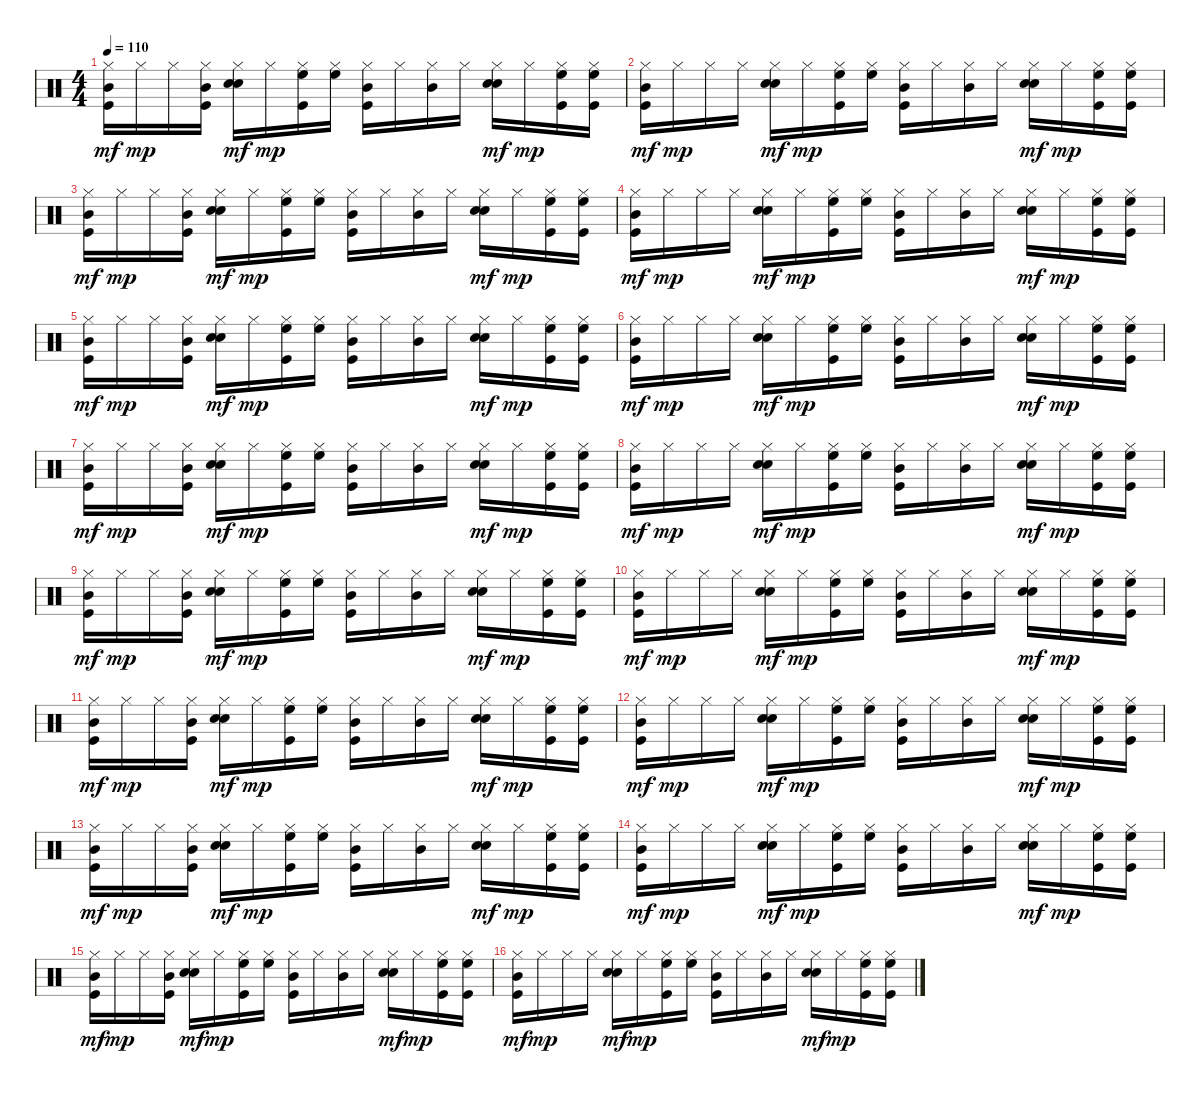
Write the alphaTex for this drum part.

\track "" {instrument percussion}
\staff {score}
\articulation defaults
\ts (4 4)
\tempo 110
\clef neutral
\ks c
("Kick (hit)" "Hi-Hat (closed)" "Mid Tom (hit)").16{dy mf} "Hi-Hat (closed)".16{dy mp} "Hi-Hat (closed)".16 ("Kick (hit)" "Hi-Hat (closed)" "Mid Tom (hit)").16 ("Electric Snare (hit)" "Hi-Hat (closed)" "Hand Clap (hit)").16{dy mf} "Hi-Hat (closed)".16{dy mp} ("Kick (hit)" "Hi-Hat (closed)" "High Floor Tom (hit)").16 ("Hi-Hat (closed)" "High Floor Tom (hit)").16 ("Kick (hit)" "Hi-Hat (closed)" "Mid Tom (hit)").16 "Hi-Hat (closed)".16 ("Hi-Hat (closed)" "Mid Tom (hit)").16 "Hi-Hat (closed)".16 ("Electric Snare (hit)" "Hi-Hat (closed)" "Hand Clap (hit)").16{dy mf} "Hi-Hat (closed)".16{dy mp} ("Kick (hit)" "Hi-Hat (closed)" "High Floor Tom (hit)").16 ("Kick (hit)" "Hi-Hat (closed)" "High Floor Tom (hit)").16 |
("Kick (hit)" "Hi-Hat (closed)" "Mid Tom (hit)").16{dy mf} "Hi-Hat (closed)".16{dy mp} "Hi-Hat (closed)".16 "Hi-Hat (closed)".16 ("Electric Snare (hit)" "Hi-Hat (closed)" "Hand Clap (hit)").16{dy mf} "Hi-Hat (closed)".16{dy mp} ("Kick (hit)" "Hi-Hat (closed)" "High Floor Tom (hit)").16 ("Hi-Hat (closed)" "High Floor Tom (hit)").16 ("Kick (hit)" "Hi-Hat (closed)" "Mid Tom (hit)").16 "Hi-Hat (closed)".16 ("Hi-Hat (closed)" "Mid Tom (hit)").16 "Hi-Hat (closed)".16 ("Electric Snare (hit)" "Hi-Hat (closed)" "Hand Clap (hit)").16{dy mf} "Hi-Hat (closed)".16{dy mp} ("Kick (hit)" "Hi-Hat (closed)" "High Floor Tom (hit)").16 ("Kick (hit)" "Hi-Hat (closed)" "High Floor Tom (hit)").16 |
("Kick (hit)" "Hi-Hat (closed)" "Mid Tom (hit)").16{dy mf} "Hi-Hat (closed)".16{dy mp} "Hi-Hat (closed)".16 ("Kick (hit)" "Hi-Hat (closed)" "Mid Tom (hit)").16 ("Electric Snare (hit)" "Hi-Hat (closed)" "Hand Clap (hit)").16{dy mf} "Hi-Hat (closed)".16{dy mp} ("Kick (hit)" "Hi-Hat (closed)" "High Floor Tom (hit)").16 ("Hi-Hat (closed)" "High Floor Tom (hit)").16 ("Kick (hit)" "Hi-Hat (closed)" "Mid Tom (hit)").16 "Hi-Hat (closed)".16 ("Hi-Hat (closed)" "Mid Tom (hit)").16 "Hi-Hat (closed)".16 ("Electric Snare (hit)" "Hi-Hat (closed)" "Hand Clap (hit)").16{dy mf} "Hi-Hat (closed)".16{dy mp} ("Kick (hit)" "Hi-Hat (closed)" "High Floor Tom (hit)").16 ("Kick (hit)" "Hi-Hat (closed)" "High Floor Tom (hit)").16 |
("Kick (hit)" "Hi-Hat (closed)" "Mid Tom (hit)").16{dy mf} "Hi-Hat (closed)".16{dy mp} "Hi-Hat (closed)".16 "Hi-Hat (closed)".16 ("Electric Snare (hit)" "Hi-Hat (closed)" "Hand Clap (hit)").16{dy mf} "Hi-Hat (closed)".16{dy mp} ("Kick (hit)" "Hi-Hat (closed)" "High Floor Tom (hit)").16 ("Hi-Hat (closed)" "High Floor Tom (hit)").16 ("Kick (hit)" "Hi-Hat (closed)" "Mid Tom (hit)").16 "Hi-Hat (closed)".16 ("Hi-Hat (closed)" "Mid Tom (hit)").16 "Hi-Hat (closed)".16 ("Electric Snare (hit)" "Hi-Hat (closed)" "Hand Clap (hit)").16{dy mf} "Hi-Hat (closed)".16{dy mp} ("Kick (hit)" "Hi-Hat (closed)" "High Floor Tom (hit)").16 ("Kick (hit)" "Hi-Hat (closed)" "High Floor Tom (hit)").16 |
("Kick (hit)" "Hi-Hat (closed)" "Mid Tom (hit)").16{dy mf} "Hi-Hat (closed)".16{dy mp} "Hi-Hat (closed)".16 ("Kick (hit)" "Hi-Hat (closed)" "Mid Tom (hit)").16 ("Electric Snare (hit)" "Hi-Hat (closed)" "Hand Clap (hit)").16{dy mf} "Hi-Hat (closed)".16{dy mp} ("Kick (hit)" "Hi-Hat (closed)" "High Floor Tom (hit)").16 ("Hi-Hat (closed)" "High Floor Tom (hit)").16 ("Kick (hit)" "Hi-Hat (closed)" "Mid Tom (hit)").16 "Hi-Hat (closed)".16 ("Hi-Hat (closed)" "Mid Tom (hit)").16 "Hi-Hat (closed)".16 ("Electric Snare (hit)" "Hi-Hat (closed)" "Hand Clap (hit)").16{dy mf} "Hi-Hat (closed)".16{dy mp} ("Kick (hit)" "Hi-Hat (closed)" "High Floor Tom (hit)").16 ("Kick (hit)" "Hi-Hat (closed)" "High Floor Tom (hit)").16 |
("Kick (hit)" "Hi-Hat (closed)" "Mid Tom (hit)").16{dy mf} "Hi-Hat (closed)".16{dy mp} "Hi-Hat (closed)".16 "Hi-Hat (closed)".16 ("Electric Snare (hit)" "Hi-Hat (closed)" "Hand Clap (hit)").16{dy mf} "Hi-Hat (closed)".16{dy mp} ("Kick (hit)" "Hi-Hat (closed)" "High Floor Tom (hit)").16 ("Hi-Hat (closed)" "High Floor Tom (hit)").16 ("Kick (hit)" "Hi-Hat (closed)" "Mid Tom (hit)").16 "Hi-Hat (closed)".16 ("Hi-Hat (closed)" "Mid Tom (hit)").16 "Hi-Hat (closed)".16 ("Electric Snare (hit)" "Hi-Hat (closed)" "Hand Clap (hit)").16{dy mf} "Hi-Hat (closed)".16{dy mp} ("Kick (hit)" "Hi-Hat (closed)" "High Floor Tom (hit)").16 ("Kick (hit)" "Hi-Hat (closed)" "High Floor Tom (hit)").16 |
("Kick (hit)" "Hi-Hat (closed)" "Mid Tom (hit)").16{dy mf} "Hi-Hat (closed)".16{dy mp} "Hi-Hat (closed)".16 ("Kick (hit)" "Hi-Hat (closed)" "Mid Tom (hit)").16 ("Electric Snare (hit)" "Hi-Hat (closed)" "Hand Clap (hit)").16{dy mf} "Hi-Hat (closed)".16{dy mp} ("Kick (hit)" "Hi-Hat (closed)" "High Floor Tom (hit)").16 ("Hi-Hat (closed)" "High Floor Tom (hit)").16 ("Kick (hit)" "Hi-Hat (closed)" "Mid Tom (hit)").16 "Hi-Hat (closed)".16 ("Hi-Hat (closed)" "Mid Tom (hit)").16 "Hi-Hat (closed)".16 ("Electric Snare (hit)" "Hi-Hat (closed)" "Hand Clap (hit)").16{dy mf} "Hi-Hat (closed)".16{dy mp} ("Kick (hit)" "Hi-Hat (closed)" "High Floor Tom (hit)").16 ("Kick (hit)" "Hi-Hat (closed)" "High Floor Tom (hit)").16 |
("Kick (hit)" "Hi-Hat (closed)" "Mid Tom (hit)").16{dy mf} "Hi-Hat (closed)".16{dy mp} "Hi-Hat (closed)".16 "Hi-Hat (closed)".16 ("Electric Snare (hit)" "Hi-Hat (closed)" "Hand Clap (hit)").16{dy mf} "Hi-Hat (closed)".16{dy mp} ("Kick (hit)" "Hi-Hat (closed)" "High Floor Tom (hit)").16 ("Hi-Hat (closed)" "High Floor Tom (hit)").16 ("Kick (hit)" "Hi-Hat (closed)" "Mid Tom (hit)").16 "Hi-Hat (closed)".16 ("Hi-Hat (closed)" "Mid Tom (hit)").16 "Hi-Hat (closed)".16 ("Electric Snare (hit)" "Hi-Hat (closed)" "Hand Clap (hit)").16{dy mf} "Hi-Hat (closed)".16{dy mp} ("Kick (hit)" "Hi-Hat (closed)" "High Floor Tom (hit)").16 ("Kick (hit)" "Hi-Hat (closed)" "High Floor Tom (hit)").16 |
("Kick (hit)" "Hi-Hat (closed)" "Mid Tom (hit)").16{dy mf} "Hi-Hat (closed)".16{dy mp} "Hi-Hat (closed)".16 ("Kick (hit)" "Hi-Hat (closed)" "Mid Tom (hit)").16 ("Electric Snare (hit)" "Hi-Hat (closed)" "Hand Clap (hit)").16{dy mf} "Hi-Hat (closed)".16{dy mp} ("Kick (hit)" "Hi-Hat (closed)" "High Floor Tom (hit)").16 ("Hi-Hat (closed)" "High Floor Tom (hit)").16 ("Kick (hit)" "Hi-Hat (closed)" "Mid Tom (hit)").16 "Hi-Hat (closed)".16 ("Hi-Hat (closed)" "Mid Tom (hit)").16 "Hi-Hat (closed)".16 ("Electric Snare (hit)" "Hi-Hat (closed)" "Hand Clap (hit)").16{dy mf} "Hi-Hat (closed)".16{dy mp} ("Kick (hit)" "Hi-Hat (closed)" "High Floor Tom (hit)").16 ("Kick (hit)" "Hi-Hat (closed)" "High Floor Tom (hit)").16 |
("Kick (hit)" "Hi-Hat (closed)" "Mid Tom (hit)").16{dy mf} "Hi-Hat (closed)".16{dy mp} "Hi-Hat (closed)".16 "Hi-Hat (closed)".16 ("Electric Snare (hit)" "Hi-Hat (closed)" "Hand Clap (hit)").16{dy mf} "Hi-Hat (closed)".16{dy mp} ("Kick (hit)" "Hi-Hat (closed)" "High Floor Tom (hit)").16 ("Hi-Hat (closed)" "High Floor Tom (hit)").16 ("Kick (hit)" "Hi-Hat (closed)" "Mid Tom (hit)").16 "Hi-Hat (closed)".16 ("Hi-Hat (closed)" "Mid Tom (hit)").16 "Hi-Hat (closed)".16 ("Electric Snare (hit)" "Hi-Hat (closed)" "Hand Clap (hit)").16{dy mf} "Hi-Hat (closed)".16{dy mp} ("Kick (hit)" "Hi-Hat (closed)" "High Floor Tom (hit)").16 ("Kick (hit)" "Hi-Hat (closed)" "High Floor Tom (hit)").16 |
("Kick (hit)" "Hi-Hat (closed)" "Mid Tom (hit)").16{dy mf} "Hi-Hat (closed)".16{dy mp} "Hi-Hat (closed)".16 ("Kick (hit)" "Hi-Hat (closed)" "Mid Tom (hit)").16 ("Electric Snare (hit)" "Hi-Hat (closed)" "Hand Clap (hit)").16{dy mf} "Hi-Hat (closed)".16{dy mp} ("Kick (hit)" "Hi-Hat (closed)" "High Floor Tom (hit)").16 ("Hi-Hat (closed)" "High Floor Tom (hit)").16 ("Kick (hit)" "Hi-Hat (closed)" "Mid Tom (hit)").16 "Hi-Hat (closed)".16 ("Hi-Hat (closed)" "Mid Tom (hit)").16 "Hi-Hat (closed)".16 ("Electric Snare (hit)" "Hi-Hat (closed)" "Hand Clap (hit)").16{dy mf} "Hi-Hat (closed)".16{dy mp} ("Kick (hit)" "Hi-Hat (closed)" "High Floor Tom (hit)").16 ("Kick (hit)" "Hi-Hat (closed)" "High Floor Tom (hit)").16 |
("Kick (hit)" "Hi-Hat (closed)" "Mid Tom (hit)").16{dy mf} "Hi-Hat (closed)".16{dy mp} "Hi-Hat (closed)".16 "Hi-Hat (closed)".16 ("Electric Snare (hit)" "Hi-Hat (closed)" "Hand Clap (hit)").16{dy mf} "Hi-Hat (closed)".16{dy mp} ("Kick (hit)" "Hi-Hat (closed)" "High Floor Tom (hit)").16 ("Hi-Hat (closed)" "High Floor Tom (hit)").16 ("Kick (hit)" "Hi-Hat (closed)" "Mid Tom (hit)").16 "Hi-Hat (closed)".16 ("Hi-Hat (closed)" "Mid Tom (hit)").16 "Hi-Hat (closed)".16 ("Electric Snare (hit)" "Hi-Hat (closed)" "Hand Clap (hit)").16{dy mf} "Hi-Hat (closed)".16{dy mp} ("Kick (hit)" "Hi-Hat (closed)" "High Floor Tom (hit)").16 ("Kick (hit)" "Hi-Hat (closed)" "High Floor Tom (hit)").16 |
("Kick (hit)" "Hi-Hat (closed)" "Mid Tom (hit)").16{dy mf} "Hi-Hat (closed)".16{dy mp} "Hi-Hat (closed)".16 ("Kick (hit)" "Hi-Hat (closed)" "Mid Tom (hit)").16 ("Electric Snare (hit)" "Hi-Hat (closed)" "Hand Clap (hit)").16{dy mf} "Hi-Hat (closed)".16{dy mp} ("Kick (hit)" "Hi-Hat (closed)" "High Floor Tom (hit)").16 ("Hi-Hat (closed)" "High Floor Tom (hit)").16 ("Kick (hit)" "Hi-Hat (closed)" "Mid Tom (hit)").16 "Hi-Hat (closed)".16 ("Hi-Hat (closed)" "Mid Tom (hit)").16 "Hi-Hat (closed)".16 ("Electric Snare (hit)" "Hi-Hat (closed)" "Hand Clap (hit)").16{dy mf} "Hi-Hat (closed)".16{dy mp} ("Kick (hit)" "Hi-Hat (closed)" "High Floor Tom (hit)").16 ("Kick (hit)" "Hi-Hat (closed)" "High Floor Tom (hit)").16 |
("Kick (hit)" "Hi-Hat (closed)" "Mid Tom (hit)").16{dy mf} "Hi-Hat (closed)".16{dy mp} "Hi-Hat (closed)".16 "Hi-Hat (closed)".16 ("Electric Snare (hit)" "Hi-Hat (closed)" "Hand Clap (hit)").16{dy mf} "Hi-Hat (closed)".16{dy mp} ("Kick (hit)" "Hi-Hat (closed)" "High Floor Tom (hit)").16 ("Hi-Hat (closed)" "High Floor Tom (hit)").16 ("Kick (hit)" "Hi-Hat (closed)" "Mid Tom (hit)").16 "Hi-Hat (closed)".16 ("Hi-Hat (closed)" "Mid Tom (hit)").16 "Hi-Hat (closed)".16 ("Electric Snare (hit)" "Hi-Hat (closed)" "Hand Clap (hit)").16{dy mf} "Hi-Hat (closed)".16{dy mp} ("Kick (hit)" "Hi-Hat (closed)" "High Floor Tom (hit)").16 ("Kick (hit)" "Hi-Hat (closed)" "High Floor Tom (hit)").16 |
("Kick (hit)" "Hi-Hat (closed)" "Mid Tom (hit)").16{dy mf} "Hi-Hat (closed)".16{dy mp} "Hi-Hat (closed)".16 ("Kick (hit)" "Hi-Hat (closed)" "Mid Tom (hit)").16 ("Electric Snare (hit)" "Hi-Hat (closed)" "Hand Clap (hit)").16{dy mf} "Hi-Hat (closed)".16{dy mp} ("Kick (hit)" "Hi-Hat (closed)" "High Floor Tom (hit)").16 ("Hi-Hat (closed)" "High Floor Tom (hit)").16 ("Kick (hit)" "Hi-Hat (closed)" "Mid Tom (hit)").16 "Hi-Hat (closed)".16 ("Hi-Hat (closed)" "Mid Tom (hit)").16 "Hi-Hat (closed)".16 ("Electric Snare (hit)" "Hi-Hat (closed)" "Hand Clap (hit)").16{dy mf} "Hi-Hat (closed)".16{dy mp} ("Kick (hit)" "Hi-Hat (closed)" "High Floor Tom (hit)").16 ("Kick (hit)" "Hi-Hat (closed)" "High Floor Tom (hit)").16 |
("Kick (hit)" "Hi-Hat (closed)" "Mid Tom (hit)").16{dy mf} "Hi-Hat (closed)".16{dy mp} "Hi-Hat (closed)".16 "Hi-Hat (closed)".16 ("Electric Snare (hit)" "Hi-Hat (closed)" "Hand Clap (hit)").16{dy mf} "Hi-Hat (closed)".16{dy mp} ("Kick (hit)" "Hi-Hat (closed)" "High Floor Tom (hit)").16 ("Hi-Hat (closed)" "High Floor Tom (hit)").16 ("Kick (hit)" "Hi-Hat (closed)" "Mid Tom (hit)").16 "Hi-Hat (closed)".16 ("Hi-Hat (closed)" "Mid Tom (hit)").16 "Hi-Hat (closed)".16 ("Electric Snare (hit)" "Hi-Hat (closed)" "Hand Clap (hit)").16{dy mf} "Hi-Hat (closed)".16{dy mp} ("Kick (hit)" "Hi-Hat (closed)" "High Floor Tom (hit)").16 ("Kick (hit)" "Hi-Hat (closed)" "High Floor Tom (hit)").16
